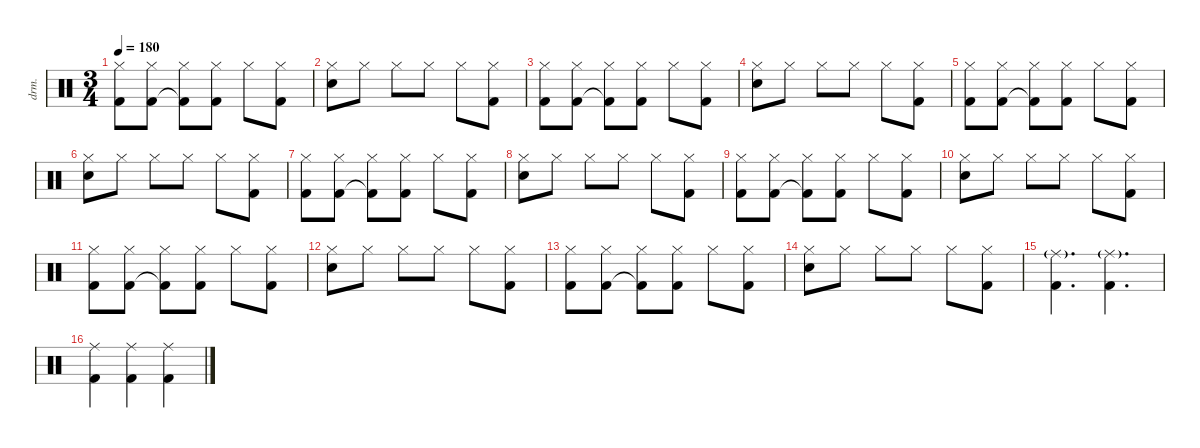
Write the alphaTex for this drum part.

\defaultSystemsLayout 4
\hideDynamics
\bracketExtendMode nobrackets
\track ("dany" "drm.") {instrument percussion}
\staff {score}
\articulation defaults
\ts (3 4)
\tempo 180
\clef neutral
\ks c
("Kick (hit) 2" "Hi-Hat (closed)").8{dy f beam Down} ("Kick (hit) 2" "Hi-Hat (closed)").8{beam Down} ("Kick (hit) 2"{t} "Hi-Hat (closed)").8{beam Down} ("Kick (hit) 2" "Hi-Hat (closed)").8{beam Down} "Hi-Hat (closed)".8{beam Down} ("Kick (hit) 2" "Hi-Hat (closed)").8{beam Down} |
("Snare (hit) 2" "Hi-Hat (closed)").8{beam Down} "Hi-Hat (closed)".8{beam Down} "Hi-Hat (closed)".8{beam Down} "Hi-Hat (closed)".8{beam Down} "Hi-Hat (closed)".8{beam Down} ("Kick (hit) 2" "Hi-Hat (closed)").8{beam Down} |
("Kick (hit) 2" "Hi-Hat (closed)").8{beam Down} ("Kick (hit) 2" "Hi-Hat (closed)").8{beam Down} ("Kick (hit) 2"{t} "Hi-Hat (closed)").8{beam Down} ("Kick (hit) 2" "Hi-Hat (closed)").8{beam Down} "Hi-Hat (closed)".8{beam Down} ("Kick (hit) 2" "Hi-Hat (closed)").8{beam Down} |
("Snare (hit) 2" "Hi-Hat (closed)").8{beam Down} "Hi-Hat (closed)".8{beam Down} "Hi-Hat (closed)".8{beam Down} "Hi-Hat (closed)".8{beam Down} "Hi-Hat (closed)".8{beam Down} ("Kick (hit) 2" "Hi-Hat (closed)").8{beam Down} |
("Kick (hit) 2" "Hi-Hat (closed)").8{beam Down} ("Kick (hit) 2" "Hi-Hat (closed)").8{beam Down} ("Kick (hit) 2"{t} "Hi-Hat (closed)").8{beam Down} ("Kick (hit) 2" "Hi-Hat (closed)").8{beam Down} "Hi-Hat (closed)".8{beam Down} ("Kick (hit) 2" "Hi-Hat (closed)").8{beam Down} |
("Snare (hit) 2" "Hi-Hat (closed)").8{beam Down} "Hi-Hat (closed)".8{beam Down} "Hi-Hat (closed)".8{beam Down} "Hi-Hat (closed)".8{beam Down} "Hi-Hat (closed)".8{beam Down} ("Kick (hit) 2" "Hi-Hat (closed)").8{beam Down} |
("Kick (hit) 2" "Hi-Hat (closed)").8{beam Down} ("Kick (hit) 2" "Hi-Hat (closed)").8{beam Down} ("Kick (hit) 2"{t} "Hi-Hat (closed)").8{beam Down} ("Kick (hit) 2" "Hi-Hat (closed)").8{beam Down} "Hi-Hat (closed)".8{beam Down} ("Kick (hit) 2" "Hi-Hat (closed)").8{beam Down} |
("Snare (hit) 2" "Hi-Hat (closed)").8{beam Down} "Hi-Hat (closed)".8{beam Down} "Hi-Hat (closed)".8{beam Down} "Hi-Hat (closed)".8{beam Down} "Hi-Hat (closed)".8{beam Down} ("Kick (hit) 2" "Hi-Hat (closed)").8{beam Down} |
("Kick (hit) 2" "Hi-Hat (closed)").8{beam Down} ("Kick (hit) 2" "Hi-Hat (closed)").8{beam Down} ("Kick (hit) 2"{t} "Hi-Hat (closed)").8{beam Down} ("Kick (hit) 2" "Hi-Hat (closed)").8{beam Down} "Hi-Hat (closed)".8{beam Down} ("Kick (hit) 2" "Hi-Hat (closed)").8{beam Down} |
("Snare (hit) 2" "Hi-Hat (closed)").8{beam Down} "Hi-Hat (closed)".8{beam Down} "Hi-Hat (closed)".8{beam Down} "Hi-Hat (closed)".8{beam Down} "Hi-Hat (closed)".8{beam Down} ("Kick (hit) 2" "Hi-Hat (closed)").8{beam Down} |
("Kick (hit) 2" "Hi-Hat (closed)").8{beam Down} ("Kick (hit) 2" "Hi-Hat (closed)").8{beam Down} ("Kick (hit) 2"{t} "Hi-Hat (closed)").8{beam Down} ("Kick (hit) 2" "Hi-Hat (closed)").8{beam Down} "Hi-Hat (closed)".8{beam Down} ("Kick (hit) 2" "Hi-Hat (closed)").8{beam Down} |
("Snare (hit) 2" "Hi-Hat (closed)").8{beam Down} "Hi-Hat (closed)".8{beam Down} "Hi-Hat (closed)".8{beam Down} "Hi-Hat (closed)".8{beam Down} "Hi-Hat (closed)".8{beam Down} ("Kick (hit) 2" "Hi-Hat (closed)").8{beam Down} |
("Kick (hit) 2" "Hi-Hat (closed)").8{beam Down} ("Kick (hit) 2" "Hi-Hat (closed)").8{beam Down} ("Kick (hit) 2"{t} "Hi-Hat (closed)").8{beam Down} ("Kick (hit) 2" "Hi-Hat (closed)").8{beam Down} "Hi-Hat (closed)".8{beam Down} ("Kick (hit) 2" "Hi-Hat (closed)").8{beam Down} |
("Snare (hit) 2" "Hi-Hat (closed)").8{beam Down} "Hi-Hat (closed)".8{beam Down} "Hi-Hat (closed)".8{beam Down} "Hi-Hat (closed)".8{beam Down} "Hi-Hat (closed)".8{beam Down} ("Kick (hit) 2" "Hi-Hat (closed)").8{beam Down} |
("Kick (hit) 2" "Ride (middle)"{g}).4{d beam Down} ("Kick (hit) 2" "Ride (middle)"{g}).4{d beam Down} |
("Kick (hit) 2" "Ride (middle)").4{beam Down} ("Kick (hit) 2" "Ride (middle)").4{beam Down} ("Kick (hit) 2" "Ride (middle)").4{beam Down}
